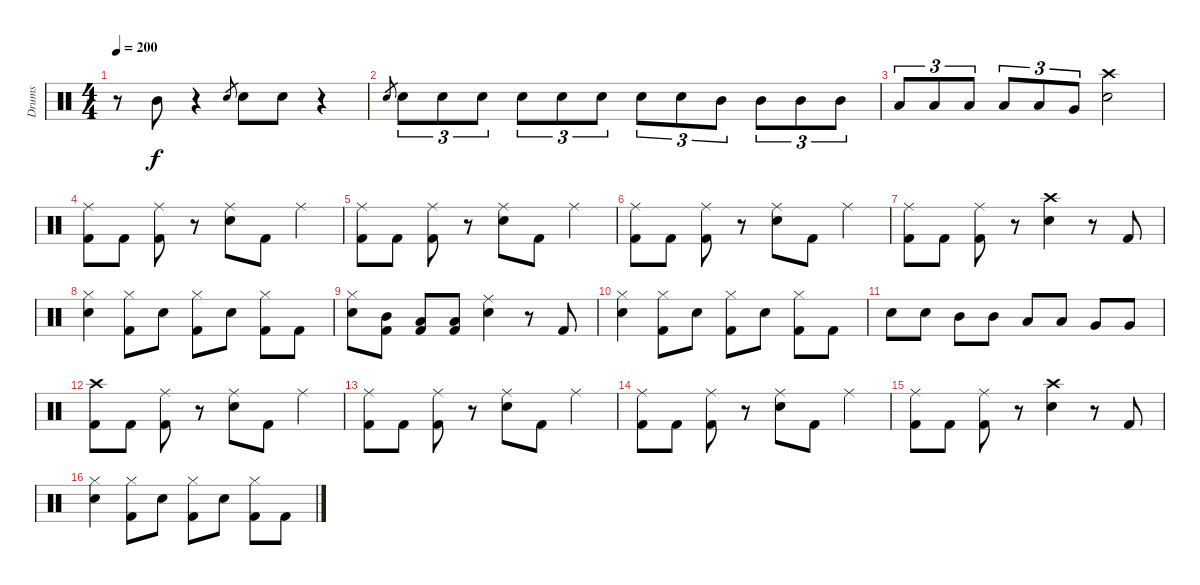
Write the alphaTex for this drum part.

\track ("Drums" "Drums") {instrument percussion}
\staff {score}
\articulation defaults
\ts (4 4)
\tempo 200
\clef neutral
\ks c
r.8{dy f} "Mid Tom (hit)".8 r.4 "Electric Snare (hit)".8{gr} "Electric Snare (hit)".8 "Electric Snare (hit)".8 r.4 |
"Electric Snare (hit)".8{gr} "Electric Snare (hit)".8{tu (3 2)} "Electric Snare (hit)".8{tu (3 2)} "Electric Snare (hit)".8{tu (3 2)} "Electric Snare (hit)".8{tu (3 2)} "Electric Snare (hit)".8{tu (3 2)} "Electric Snare (hit)".8{tu (3 2)} "Electric Snare (hit)".8{tu (3 2)} "Electric Snare (hit)".8{tu (3 2)} "Mid Tom (hit)".8{tu (3 2)} "Mid Tom (hit)".8{tu (3 2)} "Mid Tom (hit)".8{tu (3 2)} "Mid Tom (hit)".8{tu (3 2)} |
"Low Tom (hit)".8{tu (3 2)} "Low Tom (hit)".8{tu (3 2)} "Low Tom (hit)".8{tu (3 2)} "Low Tom (hit)".8{tu (3 2)} "Low Tom (hit)".8{tu (3 2)} "Very Low Tom (hit)".8{tu (3 2)} ("Crash high (hit)" "Electric Snare (hit)").2 |
("Ride (middle)" "Kick (hit) 2").8 "Kick (hit) 2".8 ("Ride (middle)" "Kick (hit) 2").8 r.8 ("Ride (middle)" "Electric Snare (hit)").8 "Kick (hit) 2".8 "Ride (middle)".4 |
("Ride (middle)" "Kick (hit) 2").8 "Kick (hit) 2".8 ("Ride (middle)" "Kick (hit) 2").8 r.8 ("Ride (middle)" "Electric Snare (hit)").8 "Kick (hit) 2".8 "Ride (middle)".4 |
("Ride (middle)" "Kick (hit) 2").8 "Kick (hit) 2".8 ("Ride (middle)" "Kick (hit) 2").8 r.8 ("Ride (middle)" "Electric Snare (hit)").8 "Kick (hit) 2".8 "Ride (middle)".4 |
("Ride (middle)" "Kick (hit) 2").8 "Kick (hit) 2".8 ("Ride (middle)" "Kick (hit) 2").8 r.8 ("Crash high (hit)" "Electric Snare (hit)").4 r.8 "Kick (hit) 2".8 |
("Hi-Hat (closed)" "Electric Snare (hit)").4 ("Hi-Hat (closed)" "Kick (hit) 2").8 "Electric Snare (hit)".8 ("Hi-Hat (closed)" "Kick (hit) 2").8 "Electric Snare (hit)".8 ("Hi-Hat (closed)" "Kick (hit) 2").8 "Kick (hit) 2".8 |
("Hi-Hat (closed)" "Electric Snare (hit)").8 ("Mid Tom (hit)" "Kick (hit) 2").8 ("Low Tom (hit)" "Kick (hit) 2").8 ("Low Tom (hit)" "Kick (hit) 2").8 ("Ride (middle)" "Electric Snare (hit)").4 r.8 "Kick (hit) 2".8 |
("Hi-Hat (closed)" "Electric Snare (hit)").4 ("Hi-Hat (closed)" "Kick (hit) 2").8 "Electric Snare (hit)".8 ("Hi-Hat (closed)" "Kick (hit) 2").8 "Electric Snare (hit)".8 ("Hi-Hat (closed)" "Kick (hit) 2").8 "Kick (hit) 2".8 |
"Electric Snare (hit)".8 "Electric Snare (hit)".8 "Mid Tom (hit)".8 "Mid Tom (hit)".8 "Low Tom (hit)".8 "Low Tom (hit)".8 "Very Low Tom (hit)".8 "Very Low Tom (hit)".8 |
("Crash high (hit)" "Kick (hit) 2").8 "Kick (hit) 2".8 ("Ride (middle)" "Kick (hit) 2").8 r.8 ("Ride (middle)" "Electric Snare (hit)").8 "Kick (hit) 2".8 "Ride (middle)".4 |
("Ride (middle)" "Kick (hit) 2").8 "Kick (hit) 2".8 ("Ride (middle)" "Kick (hit) 2").8 r.8 ("Ride (middle)" "Electric Snare (hit)").8 "Kick (hit) 2".8 "Ride (middle)".4 |
("Ride (middle)" "Kick (hit) 2").8 "Kick (hit) 2".8 ("Ride (middle)" "Kick (hit) 2").8 r.8 ("Ride (middle)" "Electric Snare (hit)").8 "Kick (hit) 2".8 "Ride (middle)".4 |
("Ride (middle)" "Kick (hit) 2").8 "Kick (hit) 2".8 ("Ride (middle)" "Kick (hit) 2").8 r.8 ("Crash high (hit)" "Electric Snare (hit)").4 r.8 "Kick (hit) 2".8 |
("Hi-Hat (closed)" "Electric Snare (hit)").4 ("Hi-Hat (closed)" "Kick (hit) 2").8 "Electric Snare (hit)".8 ("Hi-Hat (closed)" "Kick (hit) 2").8 "Electric Snare (hit)".8 ("Hi-Hat (closed)" "Kick (hit) 2").8 "Kick (hit) 2".8
